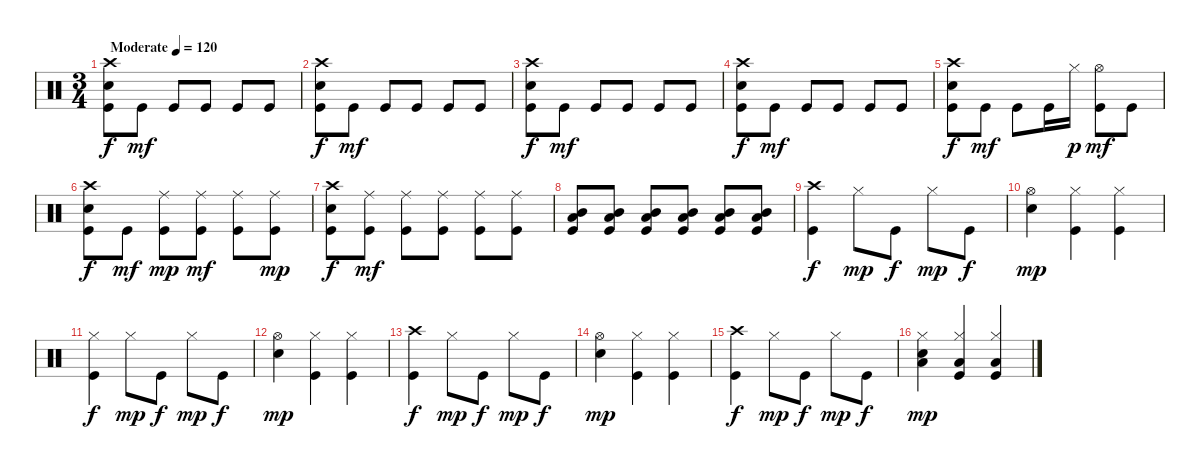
\track "" {instrument percussion}
\staff {score}
\articulation defaults
\ts (3 4)
\tempo (120 "Moderate")
\tempo 148
\tempo (120 "Moderate")
\clef neutral
\ks c
("Crash high (hit)" "Electric Snare (hit)" "Kick (hit)").8{dy f volume 13} "Kick (hit)".8{dy mf} "Kick (hit)".8 "Kick (hit)".8 "Kick (hit)".8 "Kick (hit)".8 |
("Crash high (hit)" "Electric Snare (hit)" "Kick (hit)").8{dy f} "Kick (hit)".8{dy mf} "Kick (hit)".8 "Kick (hit)".8 "Kick (hit)".8 "Kick (hit)".8 |
("Crash high (hit)" "Electric Snare (hit)" "Kick (hit)").8{dy f} "Kick (hit)".8{dy mf} "Kick (hit)".8 "Kick (hit)".8 "Kick (hit)".8 "Kick (hit)".8 |
("Crash high (hit)" "Electric Snare (hit)" "Kick (hit)").8{dy f} "Kick (hit)".8{dy mf} "Kick (hit)".8 "Kick (hit)".8 "Kick (hit)".8 "Kick (hit)".8 |
("Kick (hit)" "Electric Snare (hit)" "Crash high (hit)").8{dy f} "Kick (hit)".8{dy mf} "Kick (hit)".8 "Kick (hit)".16 "Hi-Hat (closed)".16{dy p} ("Hi-Hat (open)" "Kick (hit)").8{dy mf} "Kick (hit)".8 |
("Kick (hit)" "Electric Snare (hit)" "Crash high (hit)").8{dy f} "Kick (hit)".8{dy mf} ("Kick (hit)" "Ride (middle)").8{dy mp} ("Ride (middle)" "Kick (hit)").8{dy mf} ("Ride (middle)" "Kick (hit)").8 ("Kick (hit)" "Ride (middle)").8{dy mp} |
("Kick (hit)" "Electric Snare (hit)" "Crash high (hit)").8{dy f} ("Ride (middle)" "Kick (hit)").8{dy mf} ("Ride (middle)" "Kick (hit)").8 ("Ride (middle)" "Kick (hit)").8 ("Ride (middle)" "Kick (hit)").8 ("Ride (middle)" "Kick (hit)").8 |
("Low Tom (hit)" "Mid Tom (hit)" "Kick (hit)").8 ("Low Tom (hit)" "Mid Tom (hit)" "Kick (hit)").8 ("Low Tom (hit)" "Mid Tom (hit)" "Kick (hit)").8 ("Low Tom (hit)" "Mid Tom (hit)" "Kick (hit)").8 ("Low Tom (hit)" "Mid Tom (hit)" "Kick (hit)").8 ("Low Tom (hit)" "Mid Tom (hit)" "Kick (hit)").8 |
("Crash high (hit)" "Kick (hit)").4{dy f} "Hi-Hat (closed)".8{dy mp} "Kick (hit)".8{dy f} "Hi-Hat (closed)".8{dy mp} "Kick (hit)".8{dy f} |
("Hi-Hat (open)" "Electric Snare (hit)").4{dy mp} ("Hi-Hat (closed)" "Kick (hit)").4 ("Hi-Hat (closed)" "Kick (hit)").4 |
("Hi-Hat (closed)" "Kick (hit)").4{dy f} "Hi-Hat (closed)".8{dy mp} "Kick (hit)".8{dy f} "Hi-Hat (closed)".8{dy mp} "Kick (hit)".8{dy f} |
("Hi-Hat (open)" "Electric Snare (hit)").4{dy mp} ("Hi-Hat (closed)" "Kick (hit)").4 ("Hi-Hat (closed)" "Kick (hit)").4 |
("Crash high (hit)" "Kick (hit)").4{dy f} "Hi-Hat (closed)".8{dy mp} "Kick (hit)".8{dy f} "Hi-Hat (closed)".8{dy mp} "Kick (hit)".8{dy f} |
("Hi-Hat (open)" "Electric Snare (hit)").4{dy mp} ("Hi-Hat (closed)" "Kick (hit)").4 ("Hi-Hat (closed)" "Kick (hit)").4 |
("Crash high (hit)" "Kick (hit)").4{dy f} "Hi-Hat (closed)".8{dy mp} "Kick (hit)".8{dy f} "Hi-Hat (closed)".8{dy mp} "Kick (hit)".8{dy f} |
("Hi-Hat (closed)" "Low Tom (hit)" "Electric Snare (hit)").4{dy mp} ("Hi-Hat (closed)" "Low Tom (hit)" "Kick (hit)").4 ("Hi-Hat (closed)" "Low Tom (hit)" "Kick (hit)").4
